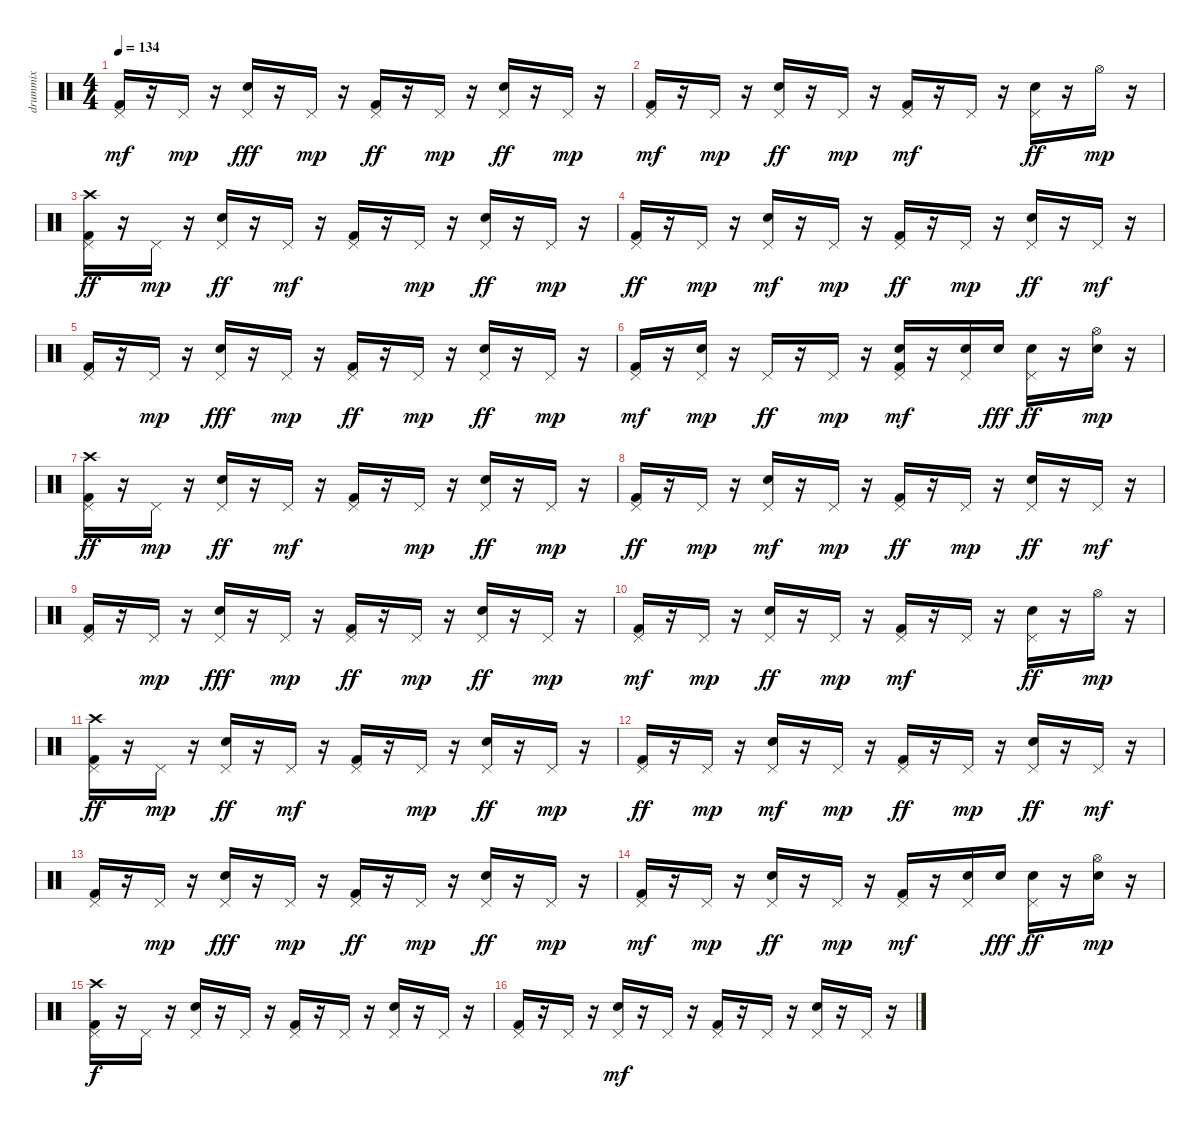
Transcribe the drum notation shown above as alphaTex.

\track ("drummix" "drummix") {instrument percussion}
\staff {score}
\articulation defaults
\ts (4 4)
\tempo 134
\clef neutral
\ks c
("Kick (hit) 2" "Pedal Hi-Hat (hit)").16{dy mf} r.16 "Pedal Hi-Hat (hit)".16{dy mp} r.16 ("Snare (hit) 2" "Pedal Hi-Hat (hit)").16{dy fff} r.16 "Pedal Hi-Hat (hit)".16{dy mp} r.16 ("Kick (hit) 2" "Pedal Hi-Hat (hit)").16{dy ff} r.16 "Pedal Hi-Hat (hit)".16{dy mp} r.16 ("Snare (hit) 2" "Pedal Hi-Hat (hit)").16{dy ff} r.16 "Pedal Hi-Hat (hit)".16{dy mp} r.16 |
("Kick (hit) 2" "Pedal Hi-Hat (hit)").16{dy mf} r.16 "Pedal Hi-Hat (hit)".16{dy mp} r.16 ("Snare (hit) 2" "Pedal Hi-Hat (hit)").16{dy ff} r.16 "Pedal Hi-Hat (hit)".16{dy mp} r.16 ("Kick (hit) 2" "Pedal Hi-Hat (hit)").16{dy mf} r.16 "Pedal Hi-Hat (hit)".16 r.16 ("Snare (hit) 2" "Pedal Hi-Hat (hit)").16{dy ff} r.16 "Hi-Hat (open)".16{dy mp} r.16 |
("Kick (hit) 2" "Pedal Hi-Hat (hit)" "Crash high (hit)").16{dy ff} r.16 "Pedal Hi-Hat (hit)".16{dy mp} r.16 ("Snare (hit) 2" "Pedal Hi-Hat (hit)").16{dy ff} r.16 "Pedal Hi-Hat (hit)".16{dy mf} r.16 ("Kick (hit) 2" "Pedal Hi-Hat (hit)").16 r.16 "Pedal Hi-Hat (hit)".16{dy mp} r.16 ("Snare (hit) 2" "Pedal Hi-Hat (hit)").16{dy ff} r.16 "Pedal Hi-Hat (hit)".16{dy mp} r.16 |
("Kick (hit) 2" "Pedal Hi-Hat (hit)").16{dy ff} r.16 "Pedal Hi-Hat (hit)".16{dy mp} r.16 ("Snare (hit) 2" "Pedal Hi-Hat (hit)").16{dy mf} r.16 "Pedal Hi-Hat (hit)".16{dy mp} r.16 ("Kick (hit) 2" "Pedal Hi-Hat (hit)").16{dy ff} r.16 "Pedal Hi-Hat (hit)".16{dy mp} r.16 ("Snare (hit) 2" "Pedal Hi-Hat (hit)").16{dy ff} r.16 "Pedal Hi-Hat (hit)".16{dy mf} r.16 |
("Kick (hit) 2" "Pedal Hi-Hat (hit)").16 r.16 "Pedal Hi-Hat (hit)".16{dy mp} r.16 ("Snare (hit) 2" "Pedal Hi-Hat (hit)").16{dy fff} r.16 "Pedal Hi-Hat (hit)".16{dy mp} r.16 ("Kick (hit) 2" "Pedal Hi-Hat (hit)").16{dy ff} r.16 "Pedal Hi-Hat (hit)".16{dy mp} r.16 ("Snare (hit) 2" "Pedal Hi-Hat (hit)").16{dy ff} r.16 "Pedal Hi-Hat (hit)".16{dy mp} r.16 |
("Kick (hit) 2" "Pedal Hi-Hat (hit)").16{dy mf} r.16 ("Snare (hit) 2" "Pedal Hi-Hat (hit)").16{dy mp} r.16 "Pedal Hi-Hat (hit)".16{dy ff} r.16 "Pedal Hi-Hat (hit)".16{dy mp} r.16 ("Kick (hit) 2" "Snare (hit) 2" "Pedal Hi-Hat (hit)").16{dy mf} r.16 ("Snare (hit) 2" "Pedal Hi-Hat (hit)").16 "Snare (hit) 2".16{dy fff} ("Snare (hit) 2" "Pedal Hi-Hat (hit)").16{dy ff} r.16 ("Snare (hit) 2" "Hi-Hat (open)").16{dy mp} r.16 |
("Kick (hit) 2" "Pedal Hi-Hat (hit)" "Crash high (hit)").16{dy ff} r.16 "Pedal Hi-Hat (hit)".16{dy mp} r.16 ("Snare (hit) 2" "Pedal Hi-Hat (hit)").16{dy ff} r.16 "Pedal Hi-Hat (hit)".16{dy mf} r.16 ("Kick (hit) 2" "Pedal Hi-Hat (hit)").16 r.16 "Pedal Hi-Hat (hit)".16{dy mp} r.16 ("Snare (hit) 2" "Pedal Hi-Hat (hit)").16{dy ff} r.16 "Pedal Hi-Hat (hit)".16{dy mp} r.16 |
("Kick (hit) 2" "Pedal Hi-Hat (hit)").16{dy ff} r.16 "Pedal Hi-Hat (hit)".16{dy mp} r.16 ("Snare (hit) 2" "Pedal Hi-Hat (hit)").16{dy mf} r.16 "Pedal Hi-Hat (hit)".16{dy mp} r.16 ("Kick (hit) 2" "Pedal Hi-Hat (hit)").16{dy ff} r.16 "Pedal Hi-Hat (hit)".16{dy mp} r.16 ("Snare (hit) 2" "Pedal Hi-Hat (hit)").16{dy ff} r.16 "Pedal Hi-Hat (hit)".16{dy mf} r.16 |
("Kick (hit) 2" "Pedal Hi-Hat (hit)").16 r.16 "Pedal Hi-Hat (hit)".16{dy mp} r.16 ("Snare (hit) 2" "Pedal Hi-Hat (hit)").16{dy fff} r.16 "Pedal Hi-Hat (hit)".16{dy mp} r.16 ("Kick (hit) 2" "Pedal Hi-Hat (hit)").16{dy ff} r.16 "Pedal Hi-Hat (hit)".16{dy mp} r.16 ("Snare (hit) 2" "Pedal Hi-Hat (hit)").16{dy ff} r.16 "Pedal Hi-Hat (hit)".16{dy mp} r.16 |
("Kick (hit) 2" "Pedal Hi-Hat (hit)").16{dy mf} r.16 "Pedal Hi-Hat (hit)".16{dy mp} r.16 ("Snare (hit) 2" "Pedal Hi-Hat (hit)").16{dy ff} r.16 "Pedal Hi-Hat (hit)".16{dy mp} r.16 ("Kick (hit) 2" "Pedal Hi-Hat (hit)").16{dy mf} r.16 "Pedal Hi-Hat (hit)".16 r.16 ("Snare (hit) 2" "Pedal Hi-Hat (hit)").16{dy ff} r.16 "Hi-Hat (open)".16{dy mp} r.16 |
("Kick (hit) 2" "Pedal Hi-Hat (hit)" "Crash high (hit)").16{dy ff} r.16 "Pedal Hi-Hat (hit)".16{dy mp} r.16 ("Snare (hit) 2" "Pedal Hi-Hat (hit)").16{dy ff} r.16 "Pedal Hi-Hat (hit)".16{dy mf} r.16 ("Kick (hit) 2" "Pedal Hi-Hat (hit)").16 r.16 "Pedal Hi-Hat (hit)".16{dy mp} r.16 ("Snare (hit) 2" "Pedal Hi-Hat (hit)").16{dy ff} r.16 "Pedal Hi-Hat (hit)".16{dy mp} r.16 |
("Kick (hit) 2" "Pedal Hi-Hat (hit)").16{dy ff} r.16 "Pedal Hi-Hat (hit)".16{dy mp} r.16 ("Snare (hit) 2" "Pedal Hi-Hat (hit)").16{dy mf} r.16 "Pedal Hi-Hat (hit)".16{dy mp} r.16 ("Kick (hit) 2" "Pedal Hi-Hat (hit)").16{dy ff} r.16 "Pedal Hi-Hat (hit)".16{dy mp} r.16 ("Snare (hit) 2" "Pedal Hi-Hat (hit)").16{dy ff} r.16 "Pedal Hi-Hat (hit)".16{dy mf} r.16 |
("Kick (hit) 2" "Pedal Hi-Hat (hit)").16 r.16 "Pedal Hi-Hat (hit)".16{dy mp} r.16 ("Snare (hit) 2" "Pedal Hi-Hat (hit)").16{dy fff} r.16 "Pedal Hi-Hat (hit)".16{dy mp} r.16 ("Kick (hit) 2" "Pedal Hi-Hat (hit)").16{dy ff} r.16 "Pedal Hi-Hat (hit)".16{dy mp} r.16 ("Snare (hit) 2" "Pedal Hi-Hat (hit)").16{dy ff} r.16 "Pedal Hi-Hat (hit)".16{dy mp} r.16 |
("Kick (hit) 2" "Pedal Hi-Hat (hit)").16{dy mf} r.16 "Pedal Hi-Hat (hit)".16{dy mp} r.16 ("Snare (hit) 2" "Pedal Hi-Hat (hit)").16{dy ff} r.16 "Pedal Hi-Hat (hit)".16{dy mp} r.16 ("Kick (hit) 2" "Pedal Hi-Hat (hit)").16{dy mf} r.16 ("Snare (hit) 2" "Pedal Hi-Hat (hit)").16 "Snare (hit) 2".16{dy fff} ("Snare (hit) 2" "Pedal Hi-Hat (hit)").16{dy ff} r.16 ("Snare (hit) 2" "Hi-Hat (open)").16{dy mp} r.16 |
("Kick (hit) 2" "Pedal Hi-Hat (hit)" "Crash high (hit)").16{dy f} r.16 "Pedal Hi-Hat (hit)".16 r.16 ("Snare (hit) 2" "Pedal Hi-Hat (hit)").16 r.16 "Pedal Hi-Hat (hit)".16 r.16 ("Kick (hit) 2" "Pedal Hi-Hat (hit)").16 r.16 "Pedal Hi-Hat (hit)".16 r.16 ("Snare (hit) 2" "Pedal Hi-Hat (hit)").16 r.16 "Pedal Hi-Hat (hit)".16 r.16 |
("Kick (hit) 2" "Pedal Hi-Hat (hit)").16 r.16 "Pedal Hi-Hat (hit)".16 r.16 ("Snare (hit) 2" "Pedal Hi-Hat (hit)").16{dy mf} r.16 "Pedal Hi-Hat (hit)".16 r.16 ("Kick (hit) 2" "Pedal Hi-Hat (hit)").16 r.16 "Pedal Hi-Hat (hit)".16 r.16 ("Snare (hit) 2" "Pedal Hi-Hat (hit)").16 r.16 "Pedal Hi-Hat (hit)".16 r.16
